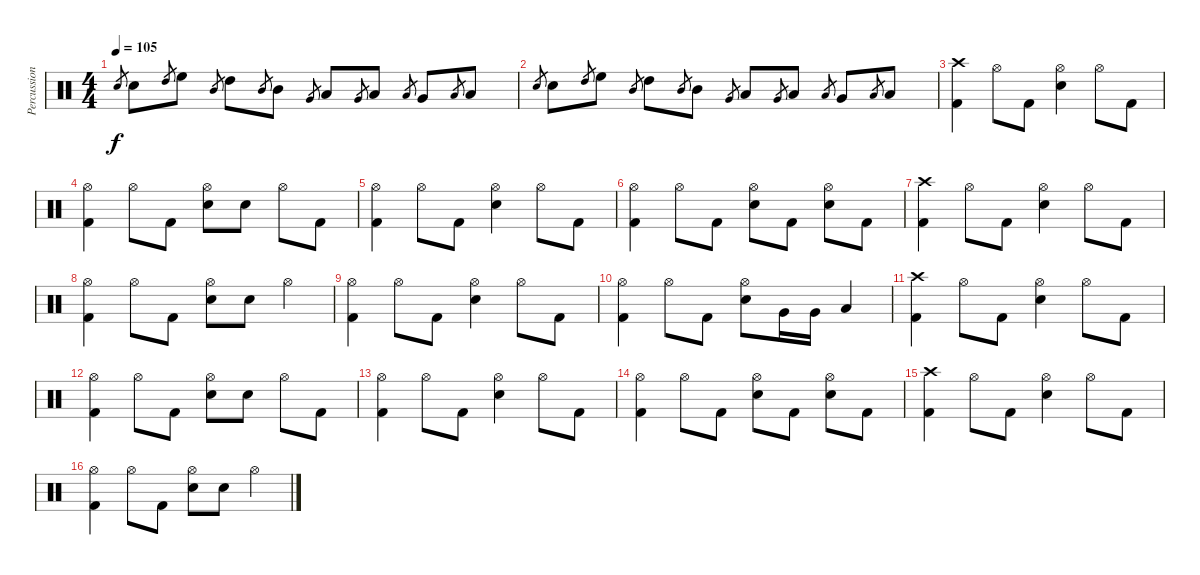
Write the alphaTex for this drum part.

\track ("Percussion" "Percussion") {instrument percussion}
\staff {score}
\articulation defaults
\ts (4 4)
\tempo 105
\clef neutral
\ks c "Electric Snare (hit)".8{gr dy f} "Electric Snare (hit)".8 "High Tom (hit)".8{gr} "High Floor Tom (hit)".8 "Mid Tom (hit)".8{gr} "High Tom (hit)".8 "Mid Tom (hit)".8{gr} "Mid Tom (hit)".8 "Very Low Tom (hit)".8{gr} "Low Tom (hit)".8 "Very Low Tom (hit)".8{gr} "Low Tom (hit)".8 "Low Floor Tom (hit)".8{gr} "Very Low Tom (hit)".8 "Low Floor Tom (hit)".8{gr} "Low Floor Tom (hit)".8
|
"Electric Snare (hit)".8{gr} "Electric Snare (hit)".8 "High Tom (hit)".8{gr} "High Floor Tom (hit)".8 "Mid Tom (hit)".8{gr} "High Tom (hit)".8 "Mid Tom (hit)".8{gr} "Mid Tom (hit)".8 "Very Low Tom (hit)".8{gr} "Low Tom (hit)".8 "Very Low Tom (hit)".8{gr} "Low Tom (hit)".8 "Low Floor Tom (hit)".8{gr} "Very Low Tom (hit)".8 "Low Floor Tom (hit)".8{gr} "Low Floor Tom (hit)".8 |
("Crash high (hit)" "Kick (hit) 2").4 "Hi-Hat (open)".8 "Kick (hit) 2".8 ("Hi-Hat (open)" "Electric Snare (hit)").4 "Hi-Hat (open)".8 "Kick (hit) 2".8 |
("Hi-Hat (open)" "Kick (hit) 2").4 "Hi-Hat (open)".8 "Kick (hit) 2".8 ("Hi-Hat (open)" "Electric Snare (hit)").8 "Electric Snare (hit)".8 "Hi-Hat (open)".8 "Kick (hit) 2".8 |
("Hi-Hat (open)" "Kick (hit) 2").4 "Hi-Hat (open)".8 "Kick (hit) 2".8 ("Hi-Hat (open)" "Electric Snare (hit)").4 "Hi-Hat (open)".8 "Kick (hit) 2".8 |
("Hi-Hat (open)" "Kick (hit) 2").4 "Hi-Hat (open)".8 "Kick (hit) 2".8 ("Hi-Hat (open)" "Electric Snare (hit)").8 "Kick (hit) 2".8 ("Hi-Hat (open)" "Electric Snare (hit)").8 "Kick (hit) 2".8 |
("Crash high (hit)" "Kick (hit) 2").4 "Hi-Hat (open)".8 "Kick (hit) 2".8 ("Hi-Hat (open)" "Electric Snare (hit)").4 "Hi-Hat (open)".8 "Kick (hit) 2".8 |
("Hi-Hat (open)" "Kick (hit) 2").4 "Hi-Hat (open)".8 "Kick (hit) 2".8 ("Hi-Hat (open)" "Electric Snare (hit)").8 "Electric Snare (hit)".8 "Hi-Hat (open)".4 |
("Hi-Hat (open)" "Kick (hit) 2").4 "Hi-Hat (open)".8 "Kick (hit) 2".8 ("Hi-Hat (open)" "Electric Snare (hit)").4 "Hi-Hat (open)".8 "Kick (hit) 2".8 |
("Hi-Hat (open)" "Kick (hit) 2").4 "Hi-Hat (open)".8 "Kick (hit) 2".8 ("Hi-Hat (open)" "Electric Snare (hit)").8 "Very Low Tom (hit)".16 "Very Low Tom (hit)".16 "Low Tom (hit)".4 |
("Crash high (hit)" "Kick (hit) 2").4 "Hi-Hat (open)".8 "Kick (hit) 2".8 ("Hi-Hat (open)" "Electric Snare (hit)").4 "Hi-Hat (open)".8 "Kick (hit) 2".8 |
("Hi-Hat (open)" "Kick (hit) 2").4 "Hi-Hat (open)".8 "Kick (hit) 2".8 ("Hi-Hat (open)" "Electric Snare (hit)").8 "Electric Snare (hit)".8 "Hi-Hat (open)".8 "Kick (hit) 2".8 |
("Hi-Hat (open)" "Kick (hit) 2").4 "Hi-Hat (open)".8 "Kick (hit) 2".8 ("Hi-Hat (open)" "Electric Snare (hit)").4 "Hi-Hat (open)".8 "Kick (hit) 2".8 |
("Hi-Hat (open)" "Kick (hit) 2").4 "Hi-Hat (open)".8 "Kick (hit) 2".8 ("Hi-Hat (open)" "Electric Snare (hit)").8 "Kick (hit) 2".8 ("Hi-Hat (open)" "Electric Snare (hit)").8 "Kick (hit) 2".8 |
("Crash high (hit)" "Kick (hit) 2").4 "Hi-Hat (open)".8 "Kick (hit) 2".8 ("Hi-Hat (open)" "Electric Snare (hit)").4 "Hi-Hat (open)".8 "Kick (hit) 2".8 |
("Hi-Hat (open)" "Kick (hit) 2").4 "Hi-Hat (open)".8 "Kick (hit) 2".8 ("Hi-Hat (open)" "Electric Snare (hit)").8 "Electric Snare (hit)".8 "Hi-Hat (open)".4
